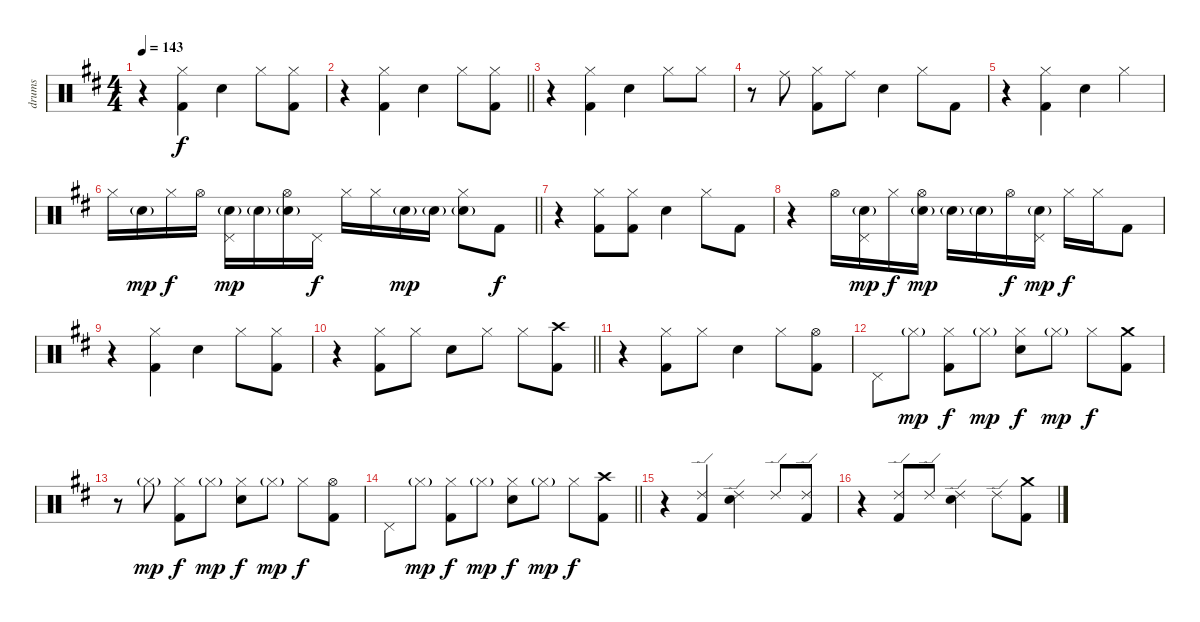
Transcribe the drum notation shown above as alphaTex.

\track ("drums" "drums") {instrument percussion}
\staff {score}
\articulation defaults
\ts (4 4)
\tempo 143
\clef neutral
\ks d
r.4{dy f} ("Hi-Hat (closed)" "Kick (hit) 2").4 "Electric Snare (hit)".4 "Hi-Hat (closed)".8 ("Hi-Hat (closed)" "Kick (hit) 2").8 |
\barLineRight lightlight
r.4 ("Hi-Hat (closed)" "Kick (hit) 2").4 "Electric Snare (hit)".4 "Hi-Hat (closed)".8 ("Hi-Hat (closed)" "Kick (hit) 2").8 |
r.4 ("Hi-Hat (closed)" "Kick (hit) 2").4 "Electric Snare (hit)".4 "Hi-Hat (closed)".8 "Hi-Hat (closed)".8 |
r.8 "Ride (middle)".8 ("Hi-Hat (closed)" "Kick (hit) 2").8 "Ride (middle)".8 "Electric Snare (hit)".4 "Hi-Hat (closed)".8 "Kick (hit) 2".8 |
r.4 ("Hi-Hat (closed)" "Kick (hit) 2").4 "Electric Snare (hit)".4 "Hi-Hat (closed)".4 |
\barLineRight lightlight "Hi-Hat (closed)".16 "Electric Snare (hit)"{g}.16{dy mp} "Hi-Hat (closed)".16{dy f} "Hi-Hat (open)".16
("Pedal Hi-Hat (hit)" "Electric Snare (hit)"{g}).16{dy mp} "Electric Snare (hit)"{g}.16 ("Hi-Hat (open)" "Electric Snare (hit)"{g}).16 "Pedal Hi-Hat (hit)".16{dy f} "Hi-Hat (closed)".16 "Hi-Hat (closed)".16 "Electric Snare (hit)"{g}.16{dy mp} "Electric Snare (hit)"{g}.16 ("Hi-Hat (closed)" "Electric Snare (hit)"{g}).8 "Kick (hit) 2".8{dy f} |
r.4 ("Hi-Hat (closed)" "Kick (hit) 2").8 ("Hi-Hat (closed)" "Kick (hit) 2").8 "Electric Snare (hit)".4 "Hi-Hat (closed)".8 "Kick (hit) 2".8 |
r.4 "Hi-Hat (open)".16 ("Pedal Hi-Hat (hit)" "Electric Snare (hit)"{g}).16{dy mp} "Hi-Hat (closed)".16{dy f} ("Hi-Hat (open)" "Electric Snare (hit)"{g}).16{dy mp} "Electric Snare (hit)"{g}.16 "Electric Snare (hit)"{g}.16 "Hi-Hat (open)".16{dy f} ("Pedal Hi-Hat (hit)" "Electric Snare (hit)"{g}).16{dy mp} "Hi-Hat (closed)".16{dy f} "Hi-Hat (closed)".16 "Kick (hit) 2".8 |
r.4 ("Hi-Hat (closed)" "Kick (hit) 2").4 "Electric Snare (hit)".4 "Hi-Hat (closed)".8 ("Hi-Hat (closed)" "Kick (hit) 2").8 |
\barLineRight lightlight
r.4 ("Hi-Hat (closed)" "Kick (hit) 2").8 "Hi-Hat (closed)".8 "Electric Snare (hit)".8 "Hi-Hat (closed)".8 "Hi-Hat (closed)".8 ("Crash high (hit)" "Kick (hit) 2").8 |
r.4 ("Hi-Hat (closed)" "Kick (hit) 2").8 "Hi-Hat (closed)".8 "Electric Snare (hit)".4 "Hi-Hat (closed)".8 ("Hi-Hat (open)" "Kick (hit) 2").8 |
"Pedal Hi-Hat (hit)".8 "Hi-Hat (closed)"{g}.8{dy mp} ("Hi-Hat (closed)" "Kick (hit) 2").8{dy f} "Hi-Hat (closed)"{g}.8{dy mp} ("Hi-Hat (closed)" "Electric Snare (hit)").8{dy f} "Hi-Hat (closed)"{g}.8{dy mp} "Hi-Hat (closed)".8{dy f} ("Crash medium (hit)" "Kick (hit) 2").8 |
r.8 "Hi-Hat (closed)"{g}.8{dy mp} ("Hi-Hat (closed)" "Kick (hit) 2").8{dy f} "Hi-Hat (closed)"{g}.8{dy mp} ("Hi-Hat (closed)" "Electric Snare (hit)").8{dy f} "Hi-Hat (closed)"{g}.8{dy mp} "Hi-Hat (closed)".8{dy f} ("Hi-Hat (open)" "Kick (hit) 2").8 |
\barLineRight lightlight "Pedal Hi-Hat (hit)".8 "Hi-Hat (closed)"{g}.8{dy mp}
("Hi-Hat (closed)" "Kick (hit) 2").8{dy f} "Hi-Hat (closed)"{g}.8{dy mp} ("Hi-Hat (closed)" "Electric Snare (hit)").8{dy f} "Hi-Hat (closed)"{g}.8{dy mp} "Hi-Hat (closed)".8{dy f} ("Crash high (hit)" "Kick (hit) 2").8 |
r.4 ("Ride (edge) 2" "Kick (hit) 2").4 ("Ride (edge) 2" "Electric Snare (hit)").4 "Ride (edge) 2".8 ("Ride (edge) 2" "Kick (hit) 2").8 |
r.4 ("Ride (edge) 2" "Kick (hit) 2").8 "Ride (edge) 2".8 ("Ride (edge) 2" "Electric Snare (hit)").4 "Ride (edge) 2".8 ("Crash medium (hit)" "Kick (hit) 2").8
